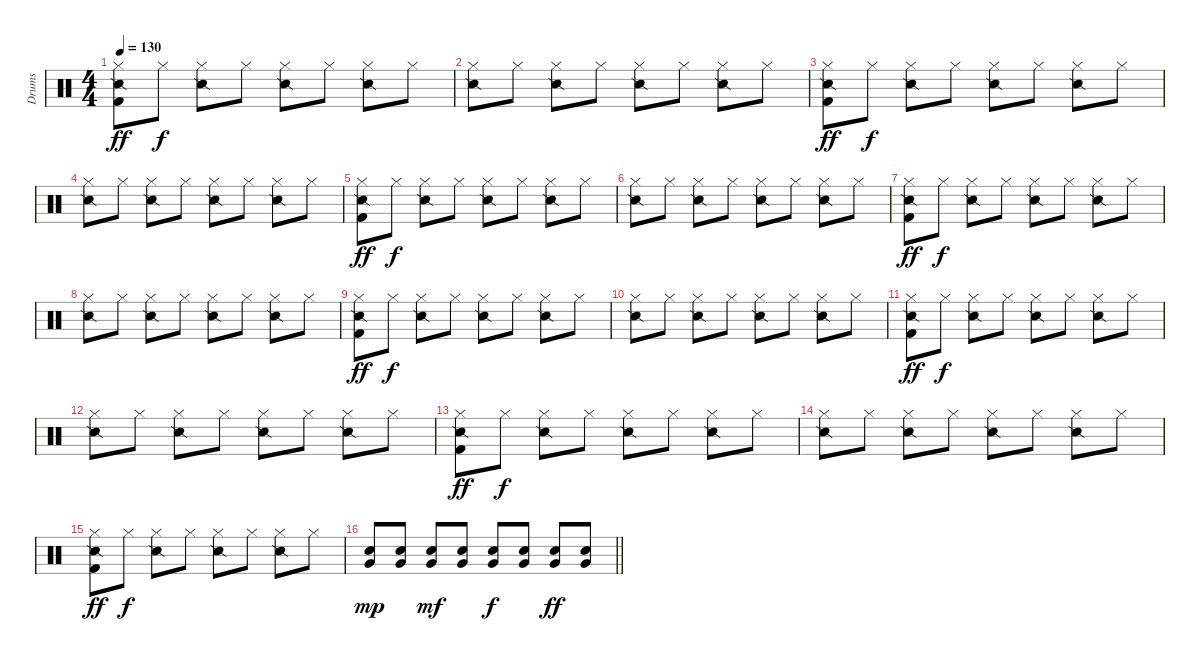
\track ("Drums" "Drums") {instrument percussion}
\staff {score}
\articulation defaults
\ts (4 4)
\tempo 130
\clef neutral
\ks c
("Kick (hit) 2" "Snare (side stick) 2" "Hi-Hat (closed)").8{dy ff} "Hi-Hat (closed)".8{dy f} ("Snare (side stick) 2" "Hi-Hat (closed)").8 "Hi-Hat (closed)".8 ("Snare (side stick) 2" "Hi-Hat (closed)").8 "Hi-Hat (closed)".8 ("Snare (side stick) 2" "Hi-Hat (closed)").8 "Hi-Hat (closed)".8 |
("Snare (side stick) 2" "Hi-Hat (closed)").8 "Hi-Hat (closed)".8 ("Snare (side stick) 2" "Hi-Hat (closed)").8 "Hi-Hat (closed)".8 ("Snare (side stick) 2" "Hi-Hat (closed)").8 "Hi-Hat (closed)".8 ("Snare (side stick) 2" "Hi-Hat (closed)").8 "Hi-Hat (closed)".8 |
("Kick (hit) 2" "Snare (side stick) 2" "Hi-Hat (closed)").8{dy ff} "Hi-Hat (closed)".8{dy f} ("Snare (side stick) 2" "Hi-Hat (closed)").8 "Hi-Hat (closed)".8 ("Snare (side stick) 2" "Hi-Hat (closed)").8 "Hi-Hat (closed)".8 ("Snare (side stick) 2" "Hi-Hat (closed)").8 "Hi-Hat (closed)".8 |
("Snare (side stick) 2" "Hi-Hat (closed)").8 "Hi-Hat (closed)".8 ("Snare (side stick) 2" "Hi-Hat (closed)").8 "Hi-Hat (closed)".8 ("Snare (side stick) 2" "Hi-Hat (closed)").8 "Hi-Hat (closed)".8 ("Snare (side stick) 2" "Hi-Hat (closed)").8 "Hi-Hat (closed)".8 |
("Kick (hit) 2" "Snare (side stick) 2" "Hi-Hat (closed)").8{dy ff} "Hi-Hat (closed)".8{dy f} ("Snare (side stick) 2" "Hi-Hat (closed)").8 "Hi-Hat (closed)".8 ("Snare (side stick) 2" "Hi-Hat (closed)").8 "Hi-Hat (closed)".8 ("Snare (side stick) 2" "Hi-Hat (closed)").8 "Hi-Hat (closed)".8 |
("Snare (side stick) 2" "Hi-Hat (closed)").8 "Hi-Hat (closed)".8 ("Snare (side stick) 2" "Hi-Hat (closed)").8 "Hi-Hat (closed)".8 ("Snare (side stick) 2" "Hi-Hat (closed)").8 "Hi-Hat (closed)".8 ("Snare (side stick) 2" "Hi-Hat (closed)").8 "Hi-Hat (closed)".8 |
("Kick (hit) 2" "Snare (side stick) 2" "Hi-Hat (closed)").8{dy ff} "Hi-Hat (closed)".8{dy f} ("Snare (side stick) 2" "Hi-Hat (closed)").8 "Hi-Hat (closed)".8 ("Snare (side stick) 2" "Hi-Hat (closed)").8 "Hi-Hat (closed)".8 ("Snare (side stick) 2" "Hi-Hat (closed)").8 "Hi-Hat (closed)".8 |
("Snare (side stick) 2" "Hi-Hat (closed)").8 "Hi-Hat (closed)".8 ("Snare (side stick) 2" "Hi-Hat (closed)").8 "Hi-Hat (closed)".8 ("Snare (side stick) 2" "Hi-Hat (closed)").8 "Hi-Hat (closed)".8 ("Snare (side stick) 2" "Hi-Hat (closed)").8 "Hi-Hat (closed)".8 |
("Kick (hit) 2" "Snare (side stick) 2" "Hi-Hat (closed)").8{dy ff} "Hi-Hat (closed)".8{dy f} ("Snare (side stick) 2" "Hi-Hat (closed)").8 "Hi-Hat (closed)".8 ("Snare (side stick) 2" "Hi-Hat (closed)").8 "Hi-Hat (closed)".8 ("Snare (side stick) 2" "Hi-Hat (closed)").8 "Hi-Hat (closed)".8 |
("Snare (side stick) 2" "Hi-Hat (closed)").8 "Hi-Hat (closed)".8 ("Snare (side stick) 2" "Hi-Hat (closed)").8 "Hi-Hat (closed)".8 ("Snare (side stick) 2" "Hi-Hat (closed)").8 "Hi-Hat (closed)".8 ("Snare (side stick) 2" "Hi-Hat (closed)").8 "Hi-Hat (closed)".8 |
("Kick (hit) 2" "Snare (side stick) 2" "Hi-Hat (closed)").8{dy ff} "Hi-Hat (closed)".8{dy f} ("Snare (side stick) 2" "Hi-Hat (closed)").8 "Hi-Hat (closed)".8 ("Snare (side stick) 2" "Hi-Hat (closed)").8 "Hi-Hat (closed)".8 ("Snare (side stick) 2" "Hi-Hat (closed)").8 "Hi-Hat (closed)".8 |
("Snare (side stick) 2" "Hi-Hat (closed)").8 "Hi-Hat (closed)".8 ("Snare (side stick) 2" "Hi-Hat (closed)").8 "Hi-Hat (closed)".8 ("Snare (side stick) 2" "Hi-Hat (closed)").8 "Hi-Hat (closed)".8 ("Snare (side stick) 2" "Hi-Hat (closed)").8 "Hi-Hat (closed)".8 |
("Kick (hit) 2" "Snare (side stick) 2" "Hi-Hat (closed)").8{dy ff} "Hi-Hat (closed)".8{dy f} ("Snare (side stick) 2" "Hi-Hat (closed)").8 "Hi-Hat (closed)".8 ("Snare (side stick) 2" "Hi-Hat (closed)").8 "Hi-Hat (closed)".8 ("Snare (side stick) 2" "Hi-Hat (closed)").8 "Hi-Hat (closed)".8 |
("Snare (side stick) 2" "Hi-Hat (closed)").8 "Hi-Hat (closed)".8 ("Snare (side stick) 2" "Hi-Hat (closed)").8 "Hi-Hat (closed)".8 ("Snare (side stick) 2" "Hi-Hat (closed)").8 "Hi-Hat (closed)".8 ("Snare (side stick) 2" "Hi-Hat (closed)").8 "Hi-Hat (closed)".8 |
("Kick (hit) 2" "Snare (side stick) 2" "Hi-Hat (closed)").8{dy ff} "Hi-Hat (closed)".8{dy f} ("Snare (side stick) 2" "Hi-Hat (closed)").8 "Hi-Hat (closed)".8 ("Snare (side stick) 2" "Hi-Hat (closed)").8 "Hi-Hat (closed)".8 ("Snare (side stick) 2" "Hi-Hat (closed)").8 "Hi-Hat (closed)".8 |
\barLineRight lightlight
("Snare (hit) 2" "Very Low Tom (hit)").8{dy mp} ("Snare (hit) 2" "Very Low Tom (hit)").8 ("Snare (hit) 2" "Very Low Tom (hit)").8{dy mf} ("Snare (hit) 2" "Very Low Tom (hit)").8 ("Snare (hit) 2" "Very Low Tom (hit)").8{dy f} ("Snare (hit) 2" "Very Low Tom (hit)").8 ("Snare (hit) 2" "Very Low Tom (hit)").8{dy ff} ("Snare (hit) 2" "Very Low Tom (hit)").8
